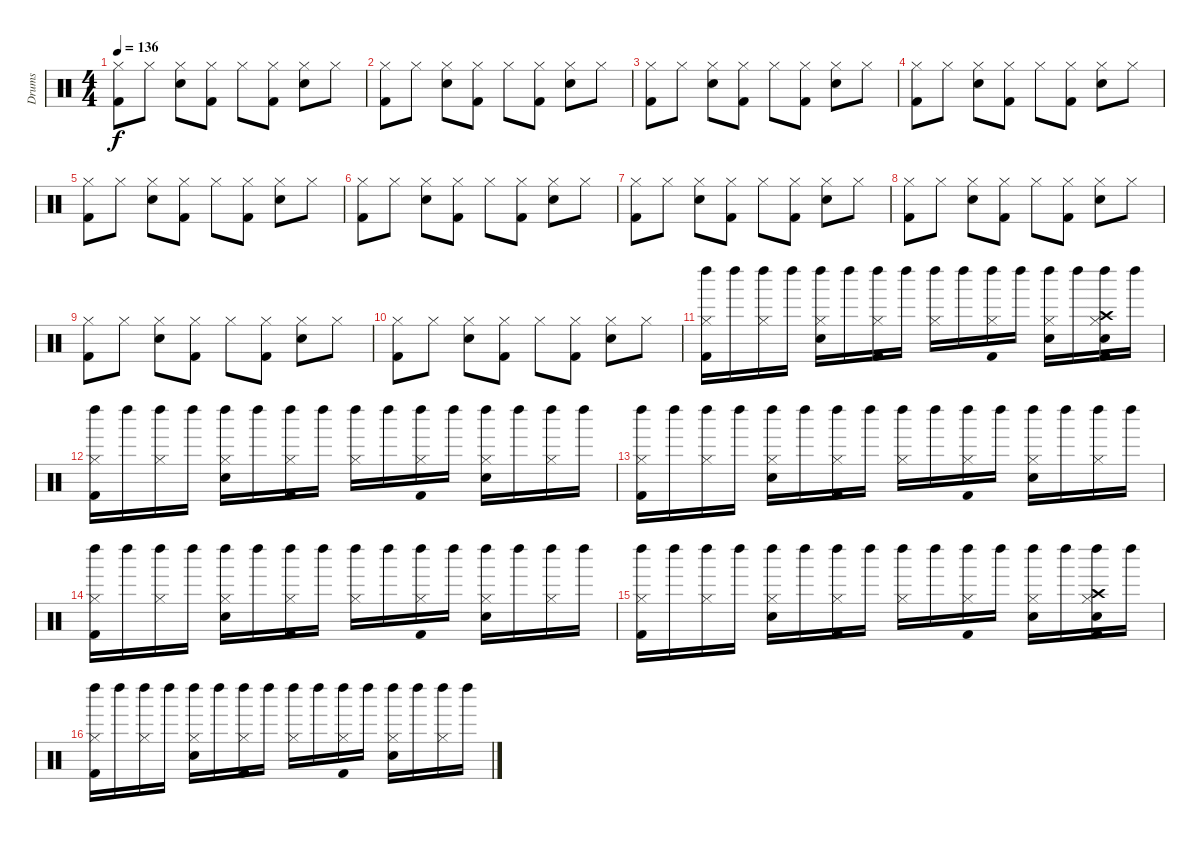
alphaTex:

\track ("Drums" "Drums") {instrument percussion}
\staff {score}
\articulation defaults
\ts (4 4)
\tempo 136
\clef neutral
\ks c
("Hi-Hat (closed)" "Kick (hit) 2").8{dy f} "Hi-Hat (closed)".8 ("Hi-Hat (closed)" "Snare (hit) 2").8 ("Hi-Hat (closed)" "Kick (hit) 2").8 "Hi-Hat (closed)".8 ("Hi-Hat (closed)" "Kick (hit) 2").8 ("Hi-Hat (closed)" "Snare (hit) 2").8 "Hi-Hat (closed)".8 |
("Hi-Hat (closed)" "Kick (hit) 2").8 "Hi-Hat (closed)".8 ("Hi-Hat (closed)" "Snare (hit) 2").8 ("Hi-Hat (closed)" "Kick (hit) 2").8 "Hi-Hat (closed)".8 ("Hi-Hat (closed)" "Kick (hit) 2").8 ("Hi-Hat (closed)" "Snare (hit) 2").8 "Hi-Hat (closed)".8 |
("Hi-Hat (closed)" "Kick (hit) 2").8 "Hi-Hat (closed)".8 ("Hi-Hat (closed)" "Snare (hit) 2").8 ("Hi-Hat (closed)" "Kick (hit) 2").8 "Hi-Hat (closed)".8 ("Hi-Hat (closed)" "Kick (hit) 2").8 ("Hi-Hat (closed)" "Snare (hit) 2").8 "Hi-Hat (closed)".8 |
("Hi-Hat (closed)" "Kick (hit) 2").8 "Hi-Hat (closed)".8 ("Hi-Hat (closed)" "Snare (hit) 2").8 ("Hi-Hat (closed)" "Kick (hit) 2").8 "Hi-Hat (closed)".8 ("Hi-Hat (closed)" "Kick (hit) 2").8 ("Hi-Hat (closed)" "Snare (hit) 2").8 "Hi-Hat (closed)".8 |
("Hi-Hat (closed)" "Kick (hit) 2").8 "Hi-Hat (closed)".8 ("Hi-Hat (closed)" "Snare (hit) 2").8 ("Hi-Hat (closed)" "Kick (hit) 2").8 "Hi-Hat (closed)".8 ("Hi-Hat (closed)" "Kick (hit) 2").8 ("Hi-Hat (closed)" "Snare (hit) 2").8 "Hi-Hat (closed)".8 |
("Hi-Hat (closed)" "Kick (hit) 2").8 "Hi-Hat (closed)".8 ("Hi-Hat (closed)" "Snare (hit) 2").8 ("Hi-Hat (closed)" "Kick (hit) 2").8 "Hi-Hat (closed)".8 ("Hi-Hat (closed)" "Kick (hit) 2").8 ("Hi-Hat (closed)" "Snare (hit) 2").8 "Hi-Hat (closed)".8 |
("Hi-Hat (closed)" "Kick (hit) 2").8 "Hi-Hat (closed)".8 ("Hi-Hat (closed)" "Snare (hit) 2").8 ("Hi-Hat (closed)" "Kick (hit) 2").8 "Hi-Hat (closed)".8 ("Hi-Hat (closed)" "Kick (hit) 2").8 ("Hi-Hat (closed)" "Snare (hit) 2").8 "Hi-Hat (closed)".8 |
("Hi-Hat (closed)" "Kick (hit) 2").8 "Hi-Hat (closed)".8 ("Hi-Hat (closed)" "Snare (hit) 2").8 ("Hi-Hat (closed)" "Kick (hit) 2").8 "Hi-Hat (closed)".8 ("Hi-Hat (closed)" "Kick (hit) 2").8 ("Hi-Hat (closed)" "Snare (hit) 2").8 "Hi-Hat (closed)".8 |
("Hi-Hat (closed)" "Kick (hit) 2").8 "Hi-Hat (closed)".8 ("Hi-Hat (closed)" "Snare (hit) 2").8 ("Hi-Hat (closed)" "Kick (hit) 2").8 "Hi-Hat (closed)".8 ("Hi-Hat (closed)" "Kick (hit) 2").8 ("Hi-Hat (closed)" "Snare (hit) 2").8 "Hi-Hat (closed)".8 |
("Hi-Hat (closed)" "Kick (hit) 2").8 "Hi-Hat (closed)".8 ("Hi-Hat (closed)" "Snare (hit) 2").8 ("Hi-Hat (closed)" "Kick (hit) 2").8 "Hi-Hat (closed)".8 ("Hi-Hat (closed)" "Kick (hit) 2").8 ("Hi-Hat (closed)" "Snare (hit) 2").8 "Hi-Hat (closed)".8 |
("Left Maraca (hit)" "Hi-Hat (closed)" "Kick (hit) 2").16 "Left Maraca (hit)".16 ("Left Maraca (hit)" "Hi-Hat (closed)").16 "Left Maraca (hit)".16 ("Left Maraca (hit)" "Hi-Hat (closed)" "Snare (hit) 2").16 "Left Maraca (hit)".16 ("Left Maraca (hit)" "Hi-Hat (closed)" "Kick (hit) 2").16 "Left Maraca (hit)".16 ("Left Maraca (hit)" "Hi-Hat (closed)").16 "Left Maraca (hit)".16 ("Left Maraca (hit)" "Hi-Hat (closed)" "Kick (hit) 2").16 "Left Maraca (hit)".16 ("Left Maraca (hit)" "Hi-Hat (closed)" "Snare (hit) 2").16 "Left Maraca (hit)".16 ("Crash high (hit)" "Left Maraca (hit)" "Hi-Hat (closed)" "Snare (hit) 2" "Kick (hit) 2").16 "Left Maraca (hit)".16 |
("Left Maraca (hit)" "Hi-Hat (closed)" "Kick (hit) 2").16 "Left Maraca (hit)".16 ("Left Maraca (hit)" "Hi-Hat (closed)").16 "Left Maraca (hit)".16 ("Left Maraca (hit)" "Hi-Hat (closed)" "Snare (hit) 2").16 "Left Maraca (hit)".16 ("Left Maraca (hit)" "Hi-Hat (closed)" "Kick (hit) 2").16 "Left Maraca (hit)".16 ("Left Maraca (hit)" "Hi-Hat (closed)").16 "Left Maraca (hit)".16 ("Left Maraca (hit)" "Hi-Hat (closed)" "Kick (hit) 2").16 "Left Maraca (hit)".16 ("Left Maraca (hit)" "Hi-Hat (closed)" "Snare (hit) 2").16 "Left Maraca (hit)".16 ("Left Maraca (hit)" "Hi-Hat (closed)").16 "Left Maraca (hit)".16 |
("Left Maraca (hit)" "Hi-Hat (closed)" "Kick (hit) 2").16 "Left Maraca (hit)".16 ("Left Maraca (hit)" "Hi-Hat (closed)").16 "Left Maraca (hit)".16 ("Left Maraca (hit)" "Hi-Hat (closed)" "Snare (hit) 2").16 "Left Maraca (hit)".16 ("Left Maraca (hit)" "Hi-Hat (closed)" "Kick (hit) 2").16 "Left Maraca (hit)".16 ("Left Maraca (hit)" "Hi-Hat (closed)").16 "Left Maraca (hit)".16 ("Left Maraca (hit)" "Hi-Hat (closed)" "Kick (hit) 2").16 "Left Maraca (hit)".16 ("Left Maraca (hit)" "Hi-Hat (closed)" "Snare (hit) 2").16 "Left Maraca (hit)".16 ("Left Maraca (hit)" "Hi-Hat (closed)").16 "Left Maraca (hit)".16 |
("Left Maraca (hit)" "Hi-Hat (closed)" "Kick (hit) 2").16 "Left Maraca (hit)".16 ("Left Maraca (hit)" "Hi-Hat (closed)").16 "Left Maraca (hit)".16 ("Left Maraca (hit)" "Hi-Hat (closed)" "Snare (hit) 2").16 "Left Maraca (hit)".16 ("Left Maraca (hit)" "Hi-Hat (closed)" "Kick (hit) 2").16 "Left Maraca (hit)".16 ("Left Maraca (hit)" "Hi-Hat (closed)").16 "Left Maraca (hit)".16 ("Left Maraca (hit)" "Hi-Hat (closed)" "Kick (hit) 2").16 "Left Maraca (hit)".16 ("Left Maraca (hit)" "Hi-Hat (closed)" "Snare (hit) 2").16 "Left Maraca (hit)".16 ("Left Maraca (hit)" "Hi-Hat (closed)").16 "Left Maraca (hit)".16 |
("Left Maraca (hit)" "Hi-Hat (closed)" "Kick (hit) 2").16 "Left Maraca (hit)".16 ("Left Maraca (hit)" "Hi-Hat (closed)").16 "Left Maraca (hit)".16 ("Left Maraca (hit)" "Hi-Hat (closed)" "Snare (hit) 2").16 "Left Maraca (hit)".16 ("Left Maraca (hit)" "Hi-Hat (closed)" "Kick (hit) 2").16 "Left Maraca (hit)".16 ("Left Maraca (hit)" "Hi-Hat (closed)").16 "Left Maraca (hit)".16 ("Left Maraca (hit)" "Hi-Hat (closed)" "Kick (hit) 2").16 "Left Maraca (hit)".16 ("Left Maraca (hit)" "Hi-Hat (closed)" "Snare (hit) 2").16 "Left Maraca (hit)".16 ("Crash high (hit)" "Left Maraca (hit)" "Hi-Hat (closed)" "Snare (hit) 2" "Kick (hit) 2").16 "Left Maraca (hit)".16 |
("Left Maraca (hit)" "Hi-Hat (closed)" "Kick (hit) 2").16 "Left Maraca (hit)".16 ("Left Maraca (hit)" "Hi-Hat (closed)").16 "Left Maraca (hit)".16 ("Left Maraca (hit)" "Hi-Hat (closed)" "Snare (hit) 2").16 "Left Maraca (hit)".16 ("Left Maraca (hit)" "Hi-Hat (closed)" "Kick (hit) 2").16 "Left Maraca (hit)".16 ("Left Maraca (hit)" "Hi-Hat (closed)").16 "Left Maraca (hit)".16 ("Left Maraca (hit)" "Hi-Hat (closed)" "Kick (hit) 2").16 "Left Maraca (hit)".16 ("Left Maraca (hit)" "Hi-Hat (closed)" "Snare (hit) 2").16 "Left Maraca (hit)".16 ("Left Maraca (hit)" "Hi-Hat (closed)").16 "Left Maraca (hit)".16
